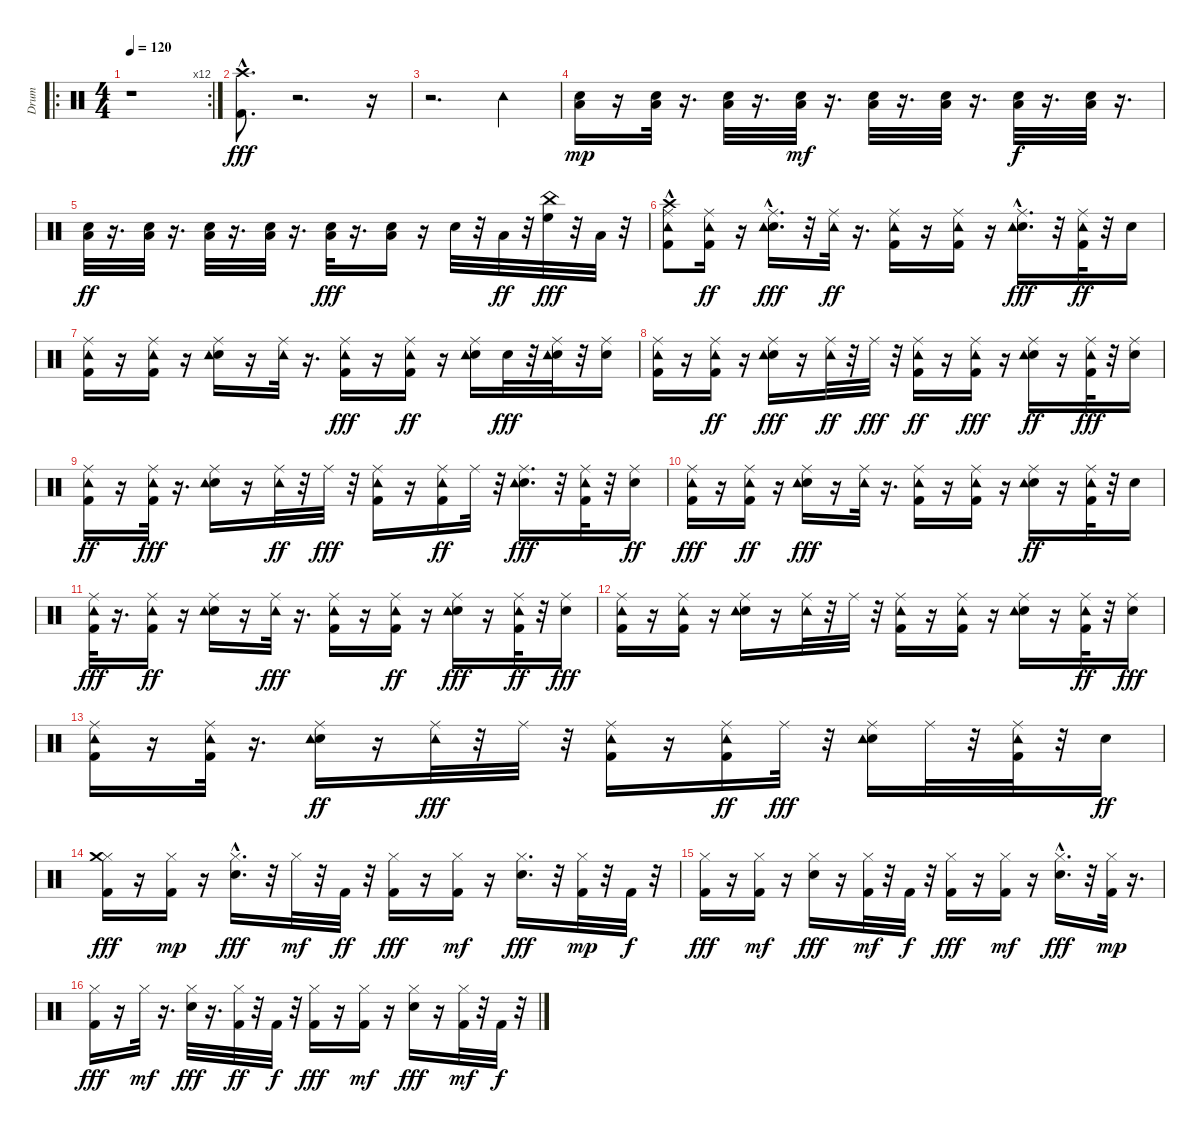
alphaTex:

\track ("Drum" "Drum") {instrument percussion}
\staff {score}
\articulation defaults
\ro
\rc 12
\ts (4 4)
\tempo 120
\clef neutral
\ks c
r.1{dy fff} |
("Kick (hit) 2"{hac} "Crash high (hit)"{hac}).8{d} r.2{d} r.16 |
r.2{d} "Tambourine (hit)".4 |
("Electric Snare (hit)" "Low Tom (hit)").16{dy mp} r.16 ("Electric Snare (hit)" "Low Tom (hit)").32 r.16{d} ("Electric Snare (hit)" "Low Tom (hit)").32 r.16{d} ("Electric Snare (hit)" "Low Tom (hit)").32{dy mf} r.16{d} ("Electric Snare (hit)" "Low Tom (hit)").32 r.16{d} ("Electric Snare (hit)" "Low Tom (hit)").32 r.16{d} ("Electric Snare (hit)" "Low Tom (hit)").32{dy f} r.16{d} ("Electric Snare (hit)" "Low Tom (hit)").32 r.16{d} |
("Electric Snare (hit)" "Low Tom (hit)").32{dy ff} r.16{d} ("Electric Snare (hit)" "Low Tom (hit)").32 r.16{d} ("Electric Snare (hit)" "Low Tom (hit)").32 r.16{d} ("Electric Snare (hit)" "Low Tom (hit)").32 r.16{d} ("Electric Snare (hit)" "Low Tom (hit)").32{dy fff} r.16{d} ("Electric Snare (hit)" "Low Tom (hit)").16 r.16 "Electric Snare (hit)".32 r.32 "Low Tom (hit)".32{dy ff} r.32 ("High Floor Tom (hit)" "China (hit)").32{dy fff} r.32 "Low Tom (hit)".32 r.32 |
("Kick (hit) 2" "Crash high (hit)"{hac} "Ride (middle)" "Tambourine (hit)").8 ("Kick (hit) 2" "Ride (middle)" "Tambourine (hit)").16{dy ff} r.16 ("Electric Snare (hit)"{hac} "Ride (middle)" "Tambourine (hit)").16{d dy fff} r.32 ("Ride (middle)" "Tambourine (hit)").32{dy ff} r.16{d} ("Kick (hit) 2" "Ride (middle)" "Tambourine (hit)").16 r.16 ("Kick (hit) 2" "Ride (middle)" "Tambourine (hit)").16 r.16 ("Electric Snare (hit)"{hac} "Ride (middle)" "Tambourine (hit)").16{d dy fff} r.32 ("Kick (hit) 2" "Ride (middle)" "Tambourine (hit)").32{dy ff} r.32 "Electric Snare (hit)".16 |
("Kick (hit) 2" "Ride (middle)" "Tambourine (hit)").16 r.16 ("Kick (hit) 2" "Ride (middle)" "Tambourine (hit)").16 r.16 ("Electric Snare (hit)" "Ride (middle)" "Tambourine (hit)").16 r.16 ("Ride (middle)" "Tambourine (hit)").32 r.16{d} ("Kick (hit) 2" "Ride (middle)" "Tambourine (hit)").16{dy fff} r.16 ("Kick (hit) 2" "Ride (middle)" "Tambourine (hit)").16{dy ff} r.16 ("Electric Snare (hit)" "Ride (middle)" "Tambourine (hit)").16 "Electric Snare (hit)".32{dy fff} r.32 ("Electric Snare (hit)" "Ride (middle)" "Tambourine (hit)").32 r.32 ("Electric Snare (hit)" "Ride (middle)").16 |
("Kick (hit) 2" "Ride (middle)" "Tambourine (hit)").16 r.16 ("Kick (hit) 2" "Ride (middle)" "Tambourine (hit)").16{dy ff} r.16 ("Electric Snare (hit)" "Ride (middle)" "Tambourine (hit)").16{dy fff} r.16 ("Ride (middle)" "Tambourine (hit)").32{dy ff} r.32 "Ride (middle)".32{dy fff} r.32 ("Kick (hit) 2" "Ride (middle)" "Tambourine (hit)").16{dy ff} r.16 ("Kick (hit) 2" "Ride (middle)" "Tambourine (hit)").16{dy fff} r.16 ("Electric Snare (hit)" "Ride (middle)" "Tambourine (hit)").16{dy ff} r.16 ("Kick (hit) 2" "Ride (middle)" "Tambourine (hit)").32{dy fff} r.32 ("Electric Snare (hit)" "Ride (middle)").16 |
("Kick (hit) 2" "Ride (middle)" "Tambourine (hit)").16{dy ff} r.16 ("Kick (hit) 2" "Ride (middle)" "Tambourine (hit)").32{dy fff} r.16{d} ("Electric Snare (hit)" "Ride (middle)" "Tambourine (hit)").16 r.16 ("Ride (middle)" "Tambourine (hit)").32{dy ff} r.32 "Ride (middle)".32{dy fff} r.32 ("Kick (hit) 2" "Ride (middle)" "Tambourine (hit)").16 r.16 ("Kick (hit) 2" "Ride (middle)" "Tambourine (hit)").16{dy ff} "Ride (middle)".32 r.32 ("Electric Snare (hit)" "Ride (middle)" "Tambourine (hit)").16{d dy fff} r.32 ("Kick (hit) 2" "Ride (middle)" "Tambourine (hit)").32 r.32 ("Electric Snare (hit)" "Ride (middle)").16{dy ff} |
("Kick (hit) 2" "Ride (middle)" "Tambourine (hit)").16{dy fff} r.16 ("Kick (hit) 2" "Ride (middle)" "Tambourine (hit)").16{dy ff} r.16 ("Electric Snare (hit)" "Ride (middle)" "Tambourine (hit)").16{dy fff} r.16 ("Ride (middle)" "Tambourine (hit)").32 r.16{d} ("Kick (hit) 2" "Ride (middle)" "Tambourine (hit)").16 r.16 ("Kick (hit) 2" "Ride (middle)" "Tambourine (hit)").16 r.16 ("Electric Snare (hit)" "Ride (middle)" "Tambourine (hit)").16{dy ff} r.16 ("Kick (hit) 2" "Ride (middle)" "Tambourine (hit)").32 r.32 "Electric Snare (hit)".16 |
("Kick (hit) 2" "Ride (middle)" "Tambourine (hit)").32{dy fff} r.16{d} ("Kick (hit) 2" "Ride (middle)" "Tambourine (hit)").16{dy ff} r.16 ("Electric Snare (hit)" "Ride (middle)" "Tambourine (hit)").16 r.16 ("Ride (middle)" "Tambourine (hit)").32{dy fff} r.16{d} ("Kick (hit) 2" "Ride (middle)" "Tambourine (hit)").16 r.16 ("Kick (hit) 2" "Ride (middle)" "Tambourine (hit)").16{dy ff} r.16 ("Electric Snare (hit)" "Ride (middle)" "Tambourine (hit)").16{dy fff} r.16 ("Kick (hit) 2" "Ride (middle)" "Tambourine (hit)").32{dy ff} r.32 ("Electric Snare (hit)" "Ride (middle)").16{dy fff} |
("Kick (hit) 2" "Ride (middle)" "Tambourine (hit)").16 r.16 ("Kick (hit) 2" "Ride (middle)" "Tambourine (hit)").16 r.16 ("Electric Snare (hit)" "Ride (middle)" "Tambourine (hit)").16 r.16 ("Ride (middle)" "Tambourine (hit)").32 r.32 "Ride (middle)".32 r.32 ("Kick (hit) 2" "Ride (middle)" "Tambourine (hit)").16 r.16 ("Kick (hit) 2" "Ride (middle)" "Tambourine (hit)").16 r.16 ("Electric Snare (hit)" "Ride (middle)" "Tambourine (hit)").16 r.16 ("Kick (hit) 2" "Ride (middle)" "Tambourine (hit)").32{dy ff} r.32 ("Electric Snare (hit)" "Ride (middle)").16{dy fff} |
("Kick (hit) 2" "Ride (middle)" "Tambourine (hit)").16 r.16 ("Kick (hit) 2" "Ride (middle)" "Tambourine (hit)").32 r.16{d} ("Electric Snare (hit)" "Ride (middle)" "Tambourine (hit)").16{dy ff} r.16 ("Ride (middle)" "Tambourine (hit)").32{dy fff} r.32 "Ride (middle)".32 r.32 ("Kick (hit) 2" "Ride (middle)" "Tambourine (hit)").16 r.16 ("Kick (hit) 2" "Ride (middle)" "Tambourine (hit)").16{dy ff} "Ride (middle)".32{dy fff} r.32 ("Electric Snare (hit)" "Ride (middle)" "Tambourine (hit)").16 "Ride (middle)".32 r.32 ("Kick (hit) 2" "Ride (middle)" "Tambourine (hit)").32 r.32 "Electric Snare (hit)".16{dy ff} |
("Kick (hit) 2" "Hi-Hat (closed)" "Crash medium (hit)").16{dy fff} r.16 ("Kick (hit) 2" "Hi-Hat (closed)").16{dy mp} r.16 ("Electric Snare (hit)"{hac} "Hi-Hat (closed)").16{d dy fff} r.32 "Hi-Hat (closed)".32{dy mf} r.32 "Kick (hit) 2".32{dy ff} r.32 ("Kick (hit) 2" "Hi-Hat (closed)").16{dy fff} r.16 ("Kick (hit) 2" "Hi-Hat (closed)").16{dy mf} r.16 ("Electric Snare (hit)" "Hi-Hat (closed)").16{d dy fff} r.32 ("Kick (hit) 2" "Hi-Hat (closed)").32{dy mp} r.32 "Kick (hit) 2".32{dy f} r.32 |
("Kick (hit) 2" "Hi-Hat (closed)").16{dy fff} r.16 ("Kick (hit) 2" "Hi-Hat (closed)").16{dy mf} r.16 ("Electric Snare (hit)" "Hi-Hat (closed)").16{dy fff} r.16 ("Kick (hit) 2" "Hi-Hat (closed)").32{dy mf} r.32 "Kick (hit) 2".32{dy f} r.32 ("Kick (hit) 2" "Hi-Hat (closed)").16{dy fff} r.16 ("Kick (hit) 2" "Hi-Hat (closed)").16{dy mf} r.16 ("Electric Snare (hit)"{hac} "Hi-Hat (closed)").16{d dy fff} r.32 ("Kick (hit) 2" "Hi-Hat (closed)").32{dy mp} r.16{d} |
("Kick (hit) 2" "Hi-Hat (closed)").16{dy fff} r.16 "Hi-Hat (closed)".32{dy mf} r.16{d} ("Electric Snare (hit)" "Hi-Hat (closed)").32{dy fff} r.16{d} ("Kick (hit) 2" "Hi-Hat (closed)").32{dy ff} r.32 "Kick (hit) 2".32{dy f} r.32 ("Kick (hit) 2" "Hi-Hat (closed)").16{dy fff} r.16 ("Kick (hit) 2" "Hi-Hat (closed)").16{dy mf} r.16 ("Electric Snare (hit)" "Hi-Hat (closed)").16{dy fff} r.16 ("Kick (hit) 2" "Hi-Hat (closed)").32{dy mf} r.32 "Kick (hit) 2".32{dy f} r.32
